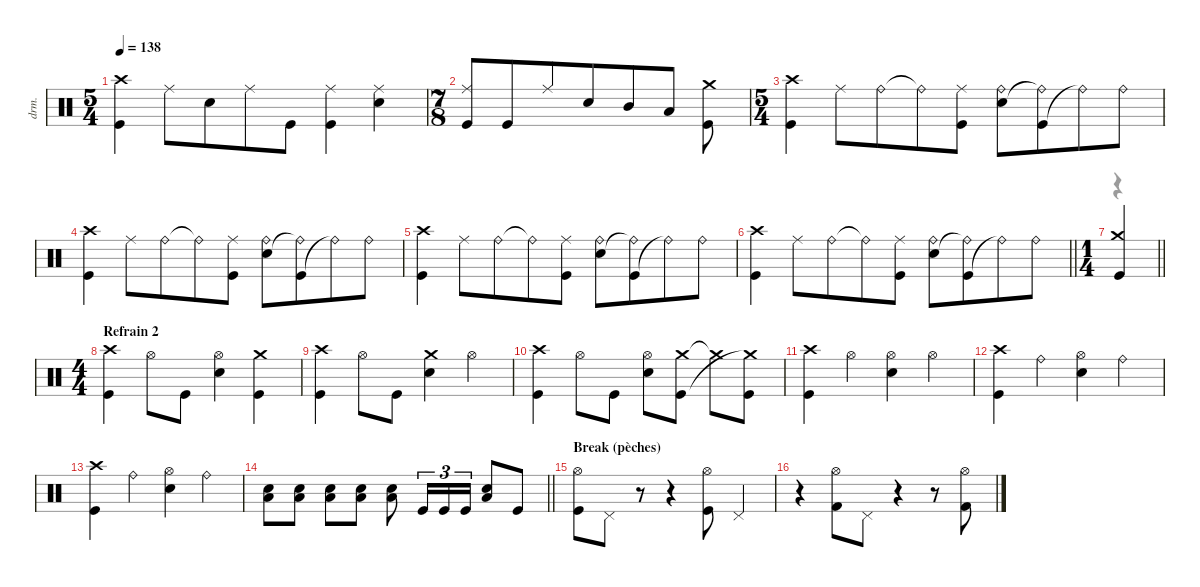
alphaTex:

\defaultSystemsLayout 4
\hideDynamics
\bracketExtendMode nobrackets
\track ("Percussions" "drm.") {instrument percussion}
\staff {score}
\articulation defaults
\voice
\ts (5 4)
\beaming (8 6 4)
\tempo 138
\clef neutral
\ks aminor
("Crash high (hit)" "Kick (hit)").4{dy f beam Down} "Ride (middle)".8{beam Down} "Snare (hit) 2".8{beam Down} "Ride (middle)".8{beam Down} "Kick (hit)".8{beam Down} ("Ride (middle)" "Kick (hit)").4{beam Down} ("Ride (middle)" "Snare (hit) 2").4{beam Down} |
\ts (7 8)
\beaming (8 6 4)
("Ride (middle)" "Kick (hit)").8{beam Up} "Kick (hit)".8{beam Up} "Ride (middle)".8{beam Up} "Snare (hit) 2".8{beam Up} "Mid Tom (hit)".8{beam Up} "Low Tom (hit)".8{beam Up} ("Kick (hit)" "Crash medium (hit)").8{beam Down} |
\ts (5 4)
\beaming (8 6 4)
("Crash high (hit)" "Kick (hit)").4{beam Down} "Ride (middle)".8{beam Down} "Ride (bell)".8{beam Down} "Ride (bell)"{t}.8{beam Down} ("Ride (middle)" "Kick (hit)").8{beam Down} ("Ride (bell)" "Snare (hit) 2").8{beam Down} ("Kick (hit)" "Ride (bell)"{t}).8{beam Down} "Ride (bell)"{t}.8{beam Down} "Ride (bell)".8{beam Down} |
("Crash high (hit)" "Kick (hit)").4{beam Down} "Ride (middle)".8{beam Down} "Ride (bell)".8{beam Down} "Ride (bell)"{t}.8{beam Down} ("Ride (middle)" "Kick (hit)").8{beam Down} ("Ride (bell)" "Snare (hit) 2").8{beam Down} ("Kick (hit)" "Ride (bell)"{t}).8{beam Down} "Ride (bell)"{t}.8{beam Down} "Ride (bell)".8{beam Down} |
("Crash high (hit)" "Kick (hit)").4{beam Down} "Ride (middle)".8{beam Down} "Ride (bell)".8{beam Down} "Ride (bell)"{t}.8{beam Down} ("Ride (middle)" "Kick (hit)").8{beam Down} ("Ride (bell)" "Snare (hit) 2").8{beam Down} ("Kick (hit)" "Ride (bell)"{t}).8{beam Down} "Ride (bell)"{t}.8{beam Down} "Ride (bell)".8{beam Down} |
\barLineRight lightlight
("Crash high (hit)" "Kick (hit)").4{beam Down} "Ride (middle)".8{beam Down} "Ride (bell)".8{beam Down} "Ride (bell)"{t}.8{beam Down} ("Ride (middle)" "Kick (hit)").8{beam Down} ("Ride (bell)" "Snare (hit) 2").8{beam Down} ("Kick (hit)" "Ride (bell)"{t}).8{beam Down} "Ride (bell)"{t}.8{beam Down} "Ride (bell)".8{beam Down} |
\ts (1 4)
\beaming (8 2)
\barLineRight lightlight
("Kick (hit)" "Crash medium (hit)").4{beam Up} |
\ts (4 4)
\beaming (8 2 2 2 2)
\section ("" "Refrain 2")
("Kick (hit)" "Crash high (hit)").4{beam Down} "Hi-Hat (open)".8{beam Down} "Kick (hit)".8{beam Down} ("Hi-Hat (open)" "Snare (hit) 2").4{beam Down} ("Crash medium (hit)" "Kick (hit)").4{beam Down} |
("Kick (hit)" "Crash high (hit)").4{beam Down} "Hi-Hat (open)".8{beam Down} "Kick (hit)".8{beam Down} ("Crash medium (hit)" "Snare (hit) 2").4{beam Down} "Hi-Hat (open)".4{beam Down} |
("Kick (hit)" "Crash high (hit)").4{beam Down} "Hi-Hat (open)".8{beam Down} "Kick (hit)".8{beam Down} ("Hi-Hat (open)" "Snare (hit) 2").8{beam Down} ("Crash medium (hit)" "Kick (hit)").8{beam Down} "Crash medium (hit)"{t}.8{beam Down} ("Kick (hit)" "Crash medium (hit)"{t}).8{beam Down} |
("Kick (hit)" "Crash high (hit)").4{beam Down} "Hi-Hat (open)".4{beam Down} ("Hi-Hat (open)" "Snare (hit) 2").4{beam Down} "Hi-Hat (open)".4{beam Down} |
("Kick (hit)" "Crash high (hit)").4{beam Down} "Ride (bell)".4{beam Down} ("Hi-Hat (open)" "Snare (hit) 2").4{beam Down} "Ride (bell)".4{beam Down} |
("Kick (hit)" "Crash high (hit)").4{beam Down} "Ride (bell)".4{beam Down} ("Hi-Hat (open)" "Snare (hit) 2").4{beam Down} "Ride (bell)".4{beam Down} |
\barLineRight lightlight
("Snare (hit) 2" "Low Tom (hit)").8{beam Down} ("Snare (hit) 2" "Low Tom (hit)").8{beam Down} ("Snare (hit) 2" "Low Tom (hit)").8{beam Down} ("Snare (hit) 2" "Low Tom (hit)").8{beam Down} ("Snare (hit) 2" "Low Tom (hit)").8{beam Down} "Kick (hit)".16{tu (3 2) beam Up} "Kick (hit)".16{tu (3 2) beam Up} "Kick (hit)".16{tu (3 2) beam Up} ("Snare (hit) 2" "Low Tom (hit)").8{beam Up} "Kick (hit)".8{beam Up} |
\section ("" "Break (pèches)")
("Hi-Hat (open)" "Kick (hit)").8{beam Down} "Pedal Hi-Hat (hit)".8{beam Down} r.8{beam Down} r.4{beam Down} ("Hi-Hat (open)" "Kick (hit)").8{beam Down} "Pedal Hi-Hat (hit)".4{beam Up} |
r.4{beam Down} ("Kick (hit) 2" "Hi-Hat (open)").8{beam Down} "Pedal Hi-Hat (hit)".8{beam Down} r.4{beam Down} r.8{beam Down} ("Kick (hit) 2" "Hi-Hat (open)").8{beam Down}
\voice
\clef neutral
\ottava regular
\simile none
\ks aminor
|
|
|
|
|
\barLineRight lightlight
|
\barLineRight lightlight
r.4{dy mf beam Down} |
|
|
|
|
|
|
\barLineRight lightlight
|
|
